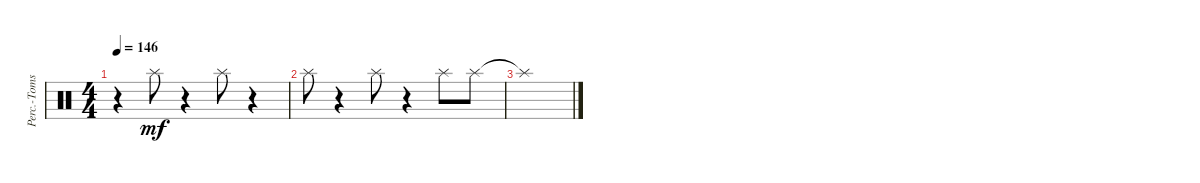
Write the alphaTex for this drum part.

\track ("Perc.-Toms/Cym.2" "Perc.-Toms") {instrument percussion}
\staff {score}
\articulation defaults
\ts (4 4)
\tempo 146
\clef neutral
\ks c
r.4{dy mf} "Splash (hit)".8 r.4 "Splash (hit)".8 r.4 |
"Splash (hit)".8 r.4 "Splash (hit)".8 r.4 "Splash (hit)".8 "Splash (hit)".8 |
"Splash (hit)"{t}.1
